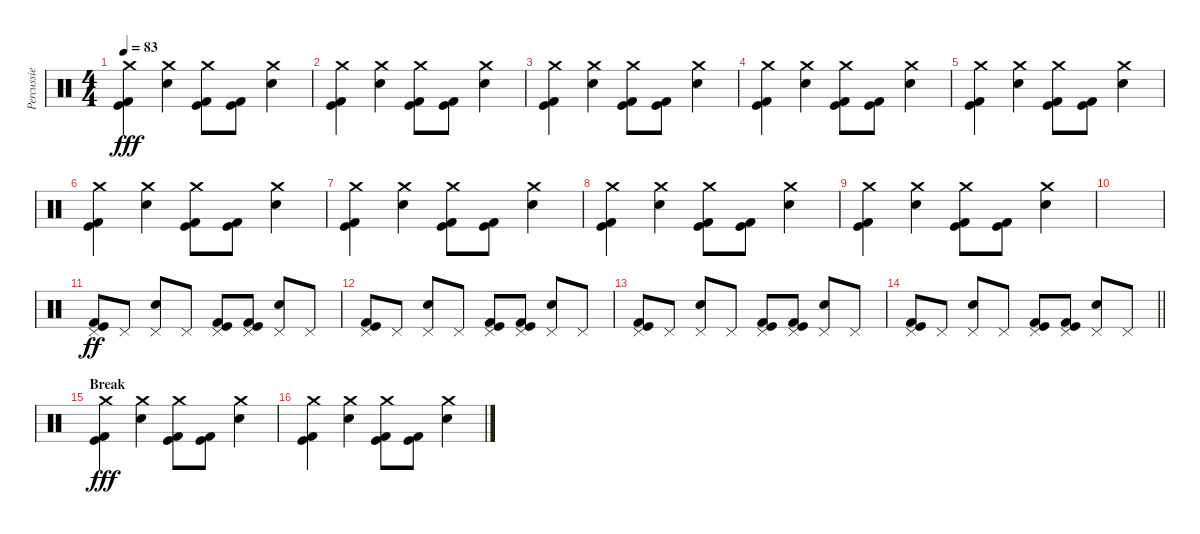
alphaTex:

\track ("Percussie" "Percussie") {instrument percussion}
\staff {score}
\articulation defaults
\ts (4 4)
\tempo 83
\clef neutral
\ks c
("Crash medium (hit)" "Kick (hit)" "Kick (hit) 2").4{dy fff} ("Crash medium (hit)" "Snare (hit) 2").4 ("Crash medium (hit)" "Kick (hit)" "Kick (hit) 2").8 ("Kick (hit)" "Kick (hit) 2").8 ("Crash medium (hit)" "Snare (hit) 2").4 |
("Crash medium (hit)" "Kick (hit)" "Kick (hit) 2").4 ("Crash medium (hit)" "Snare (hit) 2").4 ("Crash medium (hit)" "Kick (hit)" "Kick (hit) 2").8 ("Kick (hit)" "Kick (hit) 2").8 ("Crash medium (hit)" "Snare (hit) 2").4 |
("Crash medium (hit)" "Kick (hit)" "Kick (hit) 2").4 ("Crash medium (hit)" "Snare (hit) 2").4 ("Crash medium (hit)" "Kick (hit)" "Kick (hit) 2").8 ("Kick (hit)" "Kick (hit) 2").8 ("Crash medium (hit)" "Snare (hit) 2").4 |
("Crash medium (hit)" "Kick (hit)" "Kick (hit) 2").4 ("Crash medium (hit)" "Snare (hit) 2").4 ("Crash medium (hit)" "Kick (hit)" "Kick (hit) 2").8 ("Kick (hit)" "Kick (hit) 2").8 ("Crash medium (hit)" "Snare (hit) 2").4 |
("Crash medium (hit)" "Kick (hit)" "Kick (hit) 2").4 ("Crash medium (hit)" "Snare (hit) 2").4 ("Crash medium (hit)" "Kick (hit)" "Kick (hit) 2").8 ("Kick (hit)" "Kick (hit) 2").8 ("Crash medium (hit)" "Snare (hit) 2").4 |
("Crash medium (hit)" "Kick (hit)" "Kick (hit) 2").4 ("Crash medium (hit)" "Snare (hit) 2").4 ("Crash medium (hit)" "Kick (hit)" "Kick (hit) 2").8 ("Kick (hit)" "Kick (hit) 2").8 ("Crash medium (hit)" "Snare (hit) 2").4 |
("Crash medium (hit)" "Kick (hit)" "Kick (hit) 2").4 ("Crash medium (hit)" "Snare (hit) 2").4 ("Crash medium (hit)" "Kick (hit)" "Kick (hit) 2").8 ("Kick (hit)" "Kick (hit) 2").8 ("Crash medium (hit)" "Snare (hit) 2").4 |
("Crash medium (hit)" "Kick (hit)" "Kick (hit) 2").4 ("Crash medium (hit)" "Snare (hit) 2").4 ("Crash medium (hit)" "Kick (hit)" "Kick (hit) 2").8 ("Kick (hit)" "Kick (hit) 2").8 ("Crash medium (hit)" "Snare (hit) 2").4 |
("Crash medium (hit)" "Kick (hit)" "Kick (hit) 2").4 ("Crash medium (hit)" "Snare (hit) 2").4 ("Crash medium (hit)" "Kick (hit)" "Kick (hit) 2").8 ("Kick (hit)" "Kick (hit) 2").8 ("Crash medium (hit)" "Snare (hit) 2").4 |
|
("Pedal Hi-Hat (hit)" "Kick (hit)" "Kick (hit) 2").8{dy ff} "Pedal Hi-Hat (hit)".8 ("Pedal Hi-Hat (hit)" "Snare (hit) 2").8 "Pedal Hi-Hat (hit)".8 ("Pedal Hi-Hat (hit)" "Kick (hit)" "Kick (hit) 2").8 ("Pedal Hi-Hat (hit)" "Kick (hit)" "Kick (hit) 2").8 ("Pedal Hi-Hat (hit)" "Snare (hit) 2").8 "Pedal Hi-Hat (hit)".8 |
("Pedal Hi-Hat (hit)" "Kick (hit)" "Kick (hit) 2").8 "Pedal Hi-Hat (hit)".8 ("Pedal Hi-Hat (hit)" "Snare (hit) 2").8 "Pedal Hi-Hat (hit)".8 ("Pedal Hi-Hat (hit)" "Kick (hit)" "Kick (hit) 2").8 ("Pedal Hi-Hat (hit)" "Kick (hit)" "Kick (hit) 2").8 ("Pedal Hi-Hat (hit)" "Snare (hit) 2").8 "Pedal Hi-Hat (hit)".8 |
("Pedal Hi-Hat (hit)" "Kick (hit)" "Kick (hit) 2").8 "Pedal Hi-Hat (hit)".8 ("Pedal Hi-Hat (hit)" "Snare (hit) 2").8 "Pedal Hi-Hat (hit)".8 ("Pedal Hi-Hat (hit)" "Kick (hit)" "Kick (hit) 2").8 ("Pedal Hi-Hat (hit)" "Kick (hit)" "Kick (hit) 2").8 ("Pedal Hi-Hat (hit)" "Snare (hit) 2").8 "Pedal Hi-Hat (hit)".8 |
\barLineRight lightlight
("Pedal Hi-Hat (hit)" "Kick (hit)" "Kick (hit) 2").8 "Pedal Hi-Hat (hit)".8 ("Pedal Hi-Hat (hit)" "Snare (hit) 2").8 "Pedal Hi-Hat (hit)".8 ("Pedal Hi-Hat (hit)" "Kick (hit)" "Kick (hit) 2").8 ("Pedal Hi-Hat (hit)" "Kick (hit)" "Kick (hit) 2").8 ("Pedal Hi-Hat (hit)" "Snare (hit) 2").8 "Pedal Hi-Hat (hit)".8 |
\section ("" "Break")
("Crash medium (hit)" "Kick (hit)" "Kick (hit) 2").4{dy fff} ("Crash medium (hit)" "Snare (hit) 2").4 ("Crash medium (hit)" "Kick (hit)" "Kick (hit) 2").8 ("Kick (hit)" "Kick (hit) 2").8 ("Crash medium (hit)" "Snare (hit) 2").4 |
("Crash medium (hit)" "Kick (hit)" "Kick (hit) 2").4 ("Crash medium (hit)" "Snare (hit) 2").4 ("Crash medium (hit)" "Kick (hit)" "Kick (hit) 2").8 ("Kick (hit)" "Kick (hit) 2").8 ("Crash medium (hit)" "Snare (hit) 2").4
